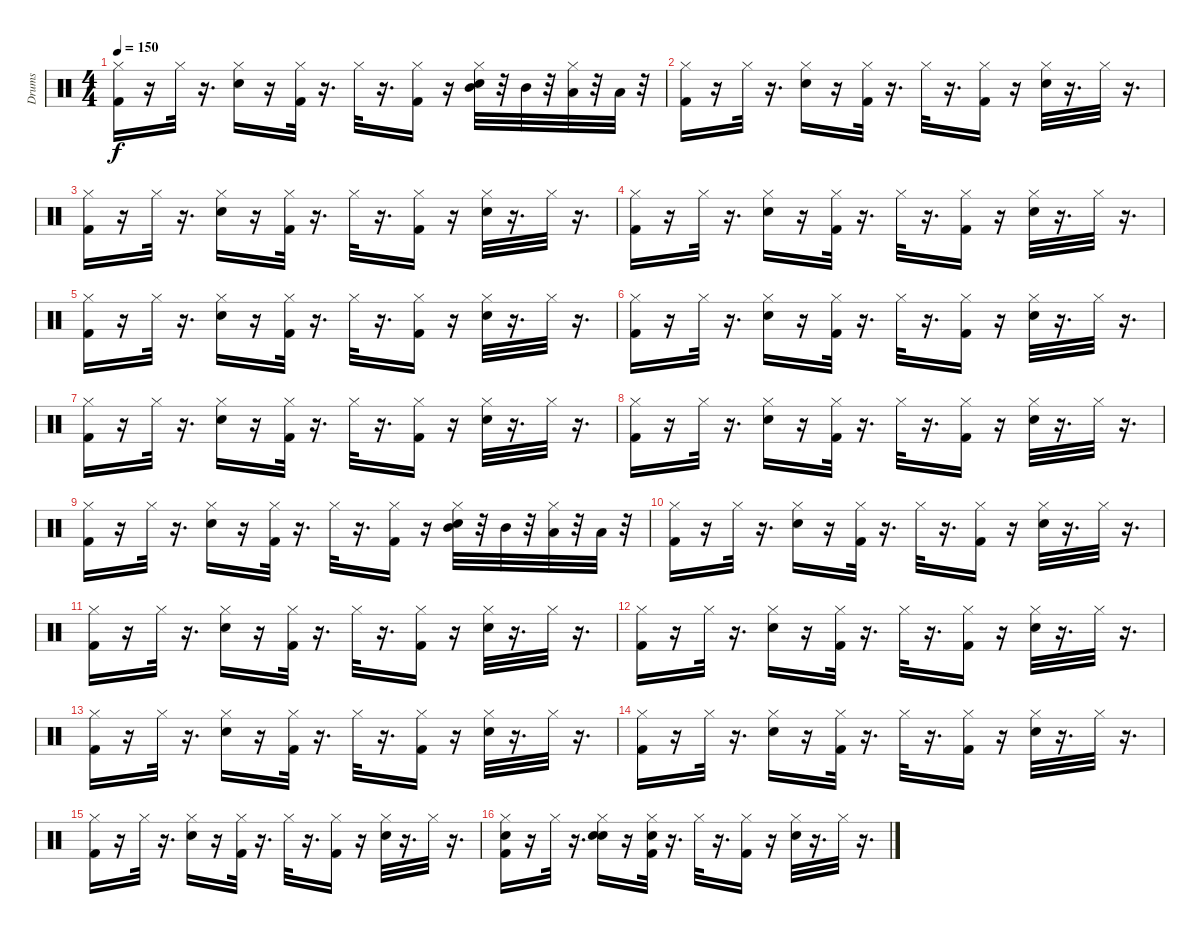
\track ("Drums" "Drums") {instrument percussion}
\staff {score}
\articulation defaults
\ts (4 4)
\tempo 150
\clef neutral
\ks c
("Kick (hit) 2" "Hi-Hat (closed)").16{dy f} r.16 "Hi-Hat (closed)".32 r.16{d} ("Electric Snare (hit)" "Hi-Hat (closed)").16 r.16 ("Kick (hit) 2" "Hi-Hat (closed)").32 r.16{d} "Hi-Hat (closed)".32 r.16{d} ("Kick (hit) 2" "Hi-Hat (closed)").16 r.16 ("Electric Snare (hit)" "Hi-Hat (closed)" "Mid Tom (hit)").32 r.32 "Mid Tom (hit)".32 r.32 ("Hi-Hat (closed)" "Low Tom (hit)").32 r.32 "Low Tom (hit)".32 r.32 |
("Hi-Hat (closed)" "Kick (hit) 2").16 r.16 "Hi-Hat (closed)".32 r.16{d} ("Electric Snare (hit)" "Hi-Hat (closed)").16 r.16 ("Kick (hit) 2" "Hi-Hat (closed)").32 r.16{d} "Hi-Hat (closed)".32 r.16{d} ("Kick (hit) 2" "Hi-Hat (closed)").16 r.16 ("Electric Snare (hit)" "Hi-Hat (closed)").32 r.16{d} "Hi-Hat (closed)".32 r.16{d} |
("Kick (hit) 2" "Hi-Hat (closed)").16 r.16 "Hi-Hat (closed)".32 r.16{d} ("Electric Snare (hit)" "Hi-Hat (closed)").16 r.16 ("Kick (hit) 2" "Hi-Hat (closed)").32 r.16{d} "Hi-Hat (closed)".32 r.16{d} ("Kick (hit) 2" "Hi-Hat (closed)").16 r.16 ("Electric Snare (hit)" "Hi-Hat (closed)").32 r.16{d} "Hi-Hat (closed)".32 r.16{d} |
("Kick (hit) 2" "Hi-Hat (closed)").16 r.16 "Hi-Hat (closed)".32 r.16{d} ("Electric Snare (hit)" "Hi-Hat (closed)").16 r.16 ("Kick (hit) 2" "Hi-Hat (closed)").32 r.16{d} "Hi-Hat (closed)".32 r.16{d} ("Kick (hit) 2" "Hi-Hat (closed)").16 r.16 ("Electric Snare (hit)" "Hi-Hat (closed)").32 r.16{d} "Hi-Hat (closed)".32 r.16{d} |
("Kick (hit) 2" "Hi-Hat (closed)").16 r.16 "Hi-Hat (closed)".32 r.16{d} ("Electric Snare (hit)" "Hi-Hat (closed)").16 r.16 ("Kick (hit) 2" "Hi-Hat (closed)").32 r.16{d} "Hi-Hat (closed)".32 r.16{d} ("Kick (hit) 2" "Hi-Hat (closed)").16 r.16 ("Electric Snare (hit)" "Hi-Hat (closed)").32 r.16{d} "Hi-Hat (closed)".32 r.16{d} |
("Hi-Hat (closed)" "Kick (hit) 2").16 r.16 "Hi-Hat (closed)".32 r.16{d} ("Electric Snare (hit)" "Hi-Hat (closed)").16 r.16 ("Kick (hit) 2" "Hi-Hat (closed)").32 r.16{d} "Hi-Hat (closed)".32 r.16{d} ("Kick (hit) 2" "Hi-Hat (closed)").16 r.16 ("Electric Snare (hit)" "Hi-Hat (closed)").32 r.16{d} "Hi-Hat (closed)".32 r.16{d} |
("Kick (hit) 2" "Hi-Hat (closed)").16 r.16 "Hi-Hat (closed)".32 r.16{d} ("Electric Snare (hit)" "Hi-Hat (closed)").16 r.16 ("Kick (hit) 2" "Hi-Hat (closed)").32 r.16{d} "Hi-Hat (closed)".32 r.16{d} ("Kick (hit) 2" "Hi-Hat (closed)").16 r.16 ("Electric Snare (hit)" "Hi-Hat (closed)").32 r.16{d} "Hi-Hat (closed)".32 r.16{d} |
("Kick (hit) 2" "Hi-Hat (closed)").16 r.16 "Hi-Hat (closed)".32 r.16{d} ("Electric Snare (hit)" "Hi-Hat (closed)").16 r.16 ("Kick (hit) 2" "Hi-Hat (closed)").32 r.16{d} "Hi-Hat (closed)".32 r.16{d} ("Kick (hit) 2" "Hi-Hat (closed)").16 r.16 ("Electric Snare (hit)" "Hi-Hat (closed)").32 r.16{d} "Hi-Hat (closed)".32 r.16{d} |
("Kick (hit) 2" "Hi-Hat (closed)").16 r.16 "Hi-Hat (closed)".32 r.16{d} ("Electric Snare (hit)" "Hi-Hat (closed)").16 r.16 ("Kick (hit) 2" "Hi-Hat (closed)").32 r.16{d} "Hi-Hat (closed)".32 r.16{d} ("Kick (hit) 2" "Hi-Hat (closed)").16 r.16 ("Electric Snare (hit)" "Hi-Hat (closed)" "Mid Tom (hit)").32 r.32 "Mid Tom (hit)".32 r.32 ("Hi-Hat (closed)" "Low Tom (hit)").32 r.32 "Low Tom (hit)".32 r.32 |
("Hi-Hat (closed)" "Kick (hit) 2").16 r.16 "Hi-Hat (closed)".32 r.16{d} ("Electric Snare (hit)" "Hi-Hat (closed)").16 r.16 ("Kick (hit) 2" "Hi-Hat (closed)").32 r.16{d} "Hi-Hat (closed)".32 r.16{d} ("Kick (hit) 2" "Hi-Hat (closed)").16 r.16 ("Electric Snare (hit)" "Hi-Hat (closed)").32 r.16{d} "Hi-Hat (closed)".32 r.16{d} |
("Kick (hit) 2" "Hi-Hat (closed)").16 r.16 "Hi-Hat (closed)".32 r.16{d} ("Electric Snare (hit)" "Hi-Hat (closed)").16 r.16 ("Kick (hit) 2" "Hi-Hat (closed)").32 r.16{d} "Hi-Hat (closed)".32 r.16{d} ("Kick (hit) 2" "Hi-Hat (closed)").16 r.16 ("Electric Snare (hit)" "Hi-Hat (closed)").32 r.16{d} "Hi-Hat (closed)".32 r.16{d} |
("Kick (hit) 2" "Hi-Hat (closed)").16 r.16 "Hi-Hat (closed)".32 r.16{d} ("Electric Snare (hit)" "Hi-Hat (closed)").16 r.16 ("Kick (hit) 2" "Hi-Hat (closed)").32 r.16{d} "Hi-Hat (closed)".32 r.16{d} ("Kick (hit) 2" "Hi-Hat (closed)").16 r.16 ("Electric Snare (hit)" "Hi-Hat (closed)").32 r.16{d} "Hi-Hat (closed)".32 r.16{d} |
("Kick (hit) 2" "Hi-Hat (closed)").16 r.16 "Hi-Hat (closed)".32 r.16{d} ("Electric Snare (hit)" "Hi-Hat (closed)").16 r.16 ("Kick (hit) 2" "Hi-Hat (closed)").32 r.16{d} "Hi-Hat (closed)".32 r.16{d} ("Kick (hit) 2" "Hi-Hat (closed)").16 r.16 ("Electric Snare (hit)" "Hi-Hat (closed)").32 r.16{d} "Hi-Hat (closed)".32 r.16{d} |
("Hi-Hat (closed)" "Kick (hit) 2").16 r.16 "Hi-Hat (closed)".32 r.16{d} ("Electric Snare (hit)" "Hi-Hat (closed)").16 r.16 ("Kick (hit) 2" "Hi-Hat (closed)").32 r.16{d} "Hi-Hat (closed)".32 r.16{d} ("Kick (hit) 2" "Hi-Hat (closed)").16 r.16 ("Electric Snare (hit)" "Hi-Hat (closed)").32 r.16{d} "Hi-Hat (closed)".32 r.16{d} |
("Kick (hit) 2" "Hi-Hat (closed)").16 r.16 "Hi-Hat (closed)".32 r.16{d} ("Electric Snare (hit)" "Hi-Hat (closed)").16 r.16 ("Kick (hit) 2" "Hi-Hat (closed)").32 r.16{d} "Hi-Hat (closed)".32 r.16{d} ("Kick (hit) 2" "Hi-Hat (closed)").16 r.16 ("Electric Snare (hit)" "Hi-Hat (closed)").32 r.16{d} "Hi-Hat (closed)".32 r.16{d} |
("Kick (hit) 2" "Hand Clap (hit)" "Hi-Hat (closed)").16 r.16 "Hi-Hat (closed)".32 r.16{d} ("Electric Snare (hit)" "Hand Clap (hit)" "Hi-Hat (closed)").16 r.16 ("Kick (hit) 2" "Hand Clap (hit)" "Hi-Hat (closed)").32 r.16{d} "Hi-Hat (closed)".32 r.16{d} ("Kick (hit) 2" "Hi-Hat (closed)").16 r.16 ("Electric Snare (hit)" "Hi-Hat (closed)").32 r.16{d} "Hi-Hat (closed)".32 r.16{d}
